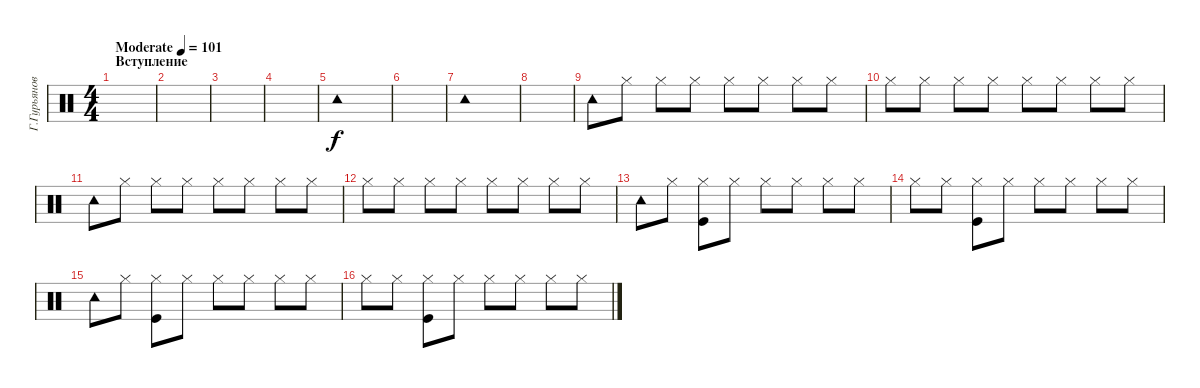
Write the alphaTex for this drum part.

\track ("Г.Гурьянов" "Г.Гурьянов") {instrument percussion}
\staff {score}
\articulation defaults
\ts (4 4)
\section ("" "Вступление")
\tempo (101 "Moderate")
\clef neutral
\ks c
|
|
|
|
"Tambourine (hit)".1 |
|
"Tambourine (hit)".1 |
|
"Tambourine (hit)".8 "Hi-Hat (closed)".8 "Hi-Hat (closed)".8 "Hi-Hat (closed)".8 "Hi-Hat (closed)".8 "Hi-Hat (closed)".8 "Hi-Hat (closed)".8 "Hi-Hat (closed)".8 |
"Hi-Hat (closed)".8 "Hi-Hat (closed)".8 "Hi-Hat (closed)".8 "Hi-Hat (closed)".8 "Hi-Hat (closed)".8 "Hi-Hat (closed)".8 "Hi-Hat (closed)".8 "Hi-Hat (closed)".8 |
"Tambourine (hit)".8 "Hi-Hat (closed)".8 "Hi-Hat (closed)".8 "Hi-Hat (closed)".8 "Hi-Hat (closed)".8 "Hi-Hat (closed)".8 "Hi-Hat (closed)".8 "Hi-Hat (closed)".8 |
"Hi-Hat (closed)".8 "Hi-Hat (closed)".8 "Hi-Hat (closed)".8 "Hi-Hat (closed)".8 "Hi-Hat (closed)".8 "Hi-Hat (closed)".8 "Hi-Hat (closed)".8 "Hi-Hat (closed)".8 |
"Tambourine (hit)".8 "Hi-Hat (closed)".8 ("Hi-Hat (closed)" "Kick (hit)").8 "Hi-Hat (closed)".8 "Hi-Hat (closed)".8 "Hi-Hat (closed)".8 "Hi-Hat (closed)".8 "Hi-Hat (closed)".8 |
"Hi-Hat (closed)".8 "Hi-Hat (closed)".8 ("Hi-Hat (closed)" "Kick (hit)").8 "Hi-Hat (closed)".8 "Hi-Hat (closed)".8 "Hi-Hat (closed)".8 "Hi-Hat (closed)".8 "Hi-Hat (closed)".8 |
"Tambourine (hit)".8 "Hi-Hat (closed)".8 ("Hi-Hat (closed)" "Kick (hit)").8 "Hi-Hat (closed)".8 "Hi-Hat (closed)".8 "Hi-Hat (closed)".8 "Hi-Hat (closed)".8 "Hi-Hat (closed)".8 |
"Hi-Hat (closed)".8 "Hi-Hat (closed)".8 ("Hi-Hat (closed)" "Kick (hit)").8 "Hi-Hat (closed)".8 "Hi-Hat (closed)".8 "Hi-Hat (closed)".8 "Hi-Hat (closed)".8 "Hi-Hat (closed)".8
